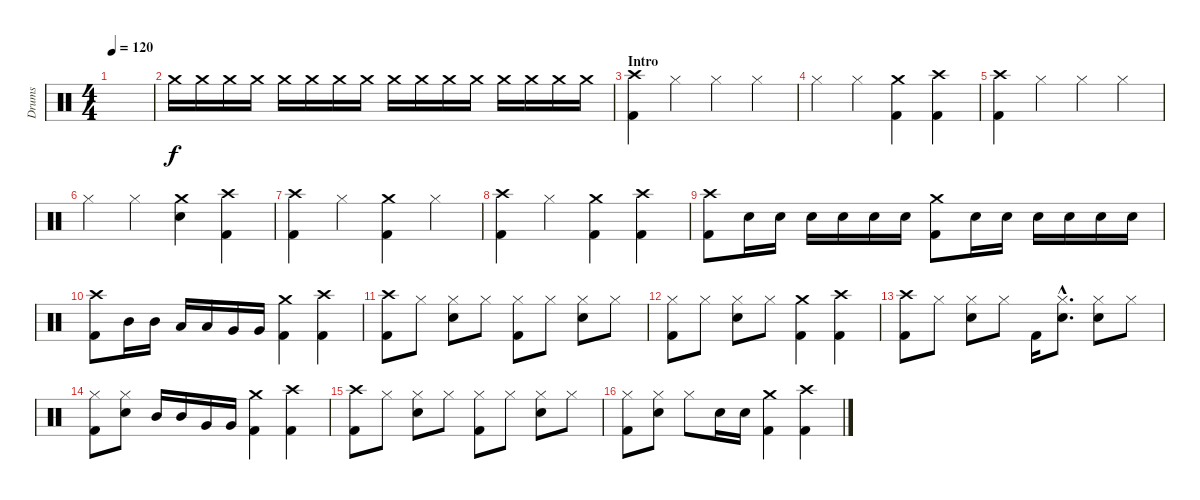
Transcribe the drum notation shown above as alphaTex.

\track ("Drums" "Drums") {instrument percussion}
\staff {score}
\articulation defaults
\ts (4 4)
\tempo 120
\clef neutral
\ks c
|
"Crash medium (hit)".16 "Crash medium (hit)".16 "Crash medium (hit)".16 "Crash medium (hit)".16 "Crash medium (hit)".16 "Crash medium (hit)".16 "Crash medium (hit)".16 "Crash medium (hit)".16 "Crash medium (hit)".16 "Crash medium (hit)".16 "Crash medium (hit)".16 "Crash medium (hit)".16 "Crash medium (hit)".16 "Crash medium (hit)".16 "Crash medium (hit)".16 "Crash medium (hit)".16 |
\section ("" "Intro")
("Crash high (hit)" "Kick (hit) 2").4 "Hi-Hat (closed)".4 "Hi-Hat (closed)".4 "Hi-Hat (closed)".4 |
"Hi-Hat (closed)".4 "Hi-Hat (closed)".4 ("Crash medium (hit)" "Kick (hit) 2").4 ("Crash high (hit)" "Kick (hit) 2").4 |
("Crash high (hit)" "Kick (hit) 2").4 "Hi-Hat (closed)".4 "Hi-Hat (closed)".4 "Hi-Hat (closed)".4 |
"Hi-Hat (closed)".4 "Hi-Hat (closed)".4 ("Crash medium (hit)" "Snare (hit)").4 ("Crash high (hit)" "Kick (hit) 2").4 |
("Crash high (hit)" "Kick (hit) 2").4 "Hi-Hat (closed)".4 ("Crash medium (hit)" "Kick (hit) 2").4 "Hi-Hat (closed)".4 |
("Crash high (hit)" "Kick (hit) 2").4 "Hi-Hat (closed)".4 ("Crash medium (hit)" "Kick (hit) 2").4 ("Crash high (hit)" "Kick (hit) 2").4 |
("Crash high (hit)" "Kick (hit) 2").8 "Electric Snare (hit)".16 "Electric Snare (hit)".16 "Electric Snare (hit)".16 "Electric Snare (hit)".16 "Electric Snare (hit)".16 "Electric Snare (hit)".16 ("Crash medium (hit)" "Kick (hit) 2").8 "Electric Snare (hit)".16 "Electric Snare (hit)".16 "Electric Snare (hit)".16 "Electric Snare (hit)".16 "Electric Snare (hit)".16 "Electric Snare (hit)".16 |
("Crash high (hit)" "Kick (hit) 2").8 "Mid Tom (hit)".16 "Mid Tom (hit)".16 "Low Tom (hit)".16 "Low Tom (hit)".16 "Very Low Tom (hit)".16 "Very Low Tom (hit)".16 ("Crash medium (hit)" "Kick (hit) 2").4 ("Crash high (hit)" "Kick (hit) 2").4 |
("Crash high (hit)" "Kick (hit) 2").8 "Hi-Hat (closed)".8 ("Electric Snare (hit)" "Hi-Hat (closed)").8 "Hi-Hat (closed)".8 ("Hi-Hat (closed)" "Kick (hit) 2").8 "Hi-Hat (closed)".8 ("Electric Snare (hit)" "Hi-Hat (closed)").8 "Hi-Hat (closed)".8 |
("Hi-Hat (closed)" "Kick (hit) 2").8 "Hi-Hat (closed)".8 ("Electric Snare (hit)" "Hi-Hat (closed)").8 "Hi-Hat (closed)".8 ("Crash medium (hit)" "Kick (hit) 2").4 ("Crash high (hit)" "Kick (hit) 2").4 |
("Crash high (hit)" "Kick (hit) 2").8 "Hi-Hat (closed)".8 ("Electric Snare (hit)" "Hi-Hat (closed)").8 "Hi-Hat (closed)".8 "Kick (hit) 2".16 ("Electric Snare (hit)"{hac} "Hi-Hat (closed)"{hac}).8{d} ("Electric Snare (hit)" "Hi-Hat (closed)").8 "Hi-Hat (closed)".8 |
("Hi-Hat (closed)" "Kick (hit) 2").8 ("Electric Snare (hit)" "Hi-Hat (closed)").8 "Mid Tom (hit)".16 "Mid Tom (hit)".16 "Very Low Tom (hit)".16 "Very Low Tom (hit)".16 ("Crash medium (hit)" "Kick (hit) 2").4 ("Crash high (hit)" "Kick (hit) 2").4 |
("Crash high (hit)" "Kick (hit) 2").8 "Hi-Hat (closed)".8 ("Electric Snare (hit)" "Hi-Hat (closed)").8 "Hi-Hat (closed)".8 ("Hi-Hat (closed)" "Kick (hit) 2").8 "Hi-Hat (closed)".8 ("Electric Snare (hit)" "Hi-Hat (closed)").8 "Hi-Hat (closed)".8 |
("Hi-Hat (closed)" "Kick (hit) 2").8 ("Electric Snare (hit)" "Hi-Hat (closed)").8 "Hi-Hat (closed)".8 "Electric Snare (hit)".16 "Electric Snare (hit)".16 ("Crash medium (hit)" "Kick (hit) 2").4 ("Crash high (hit)" "Kick (hit) 2").4
